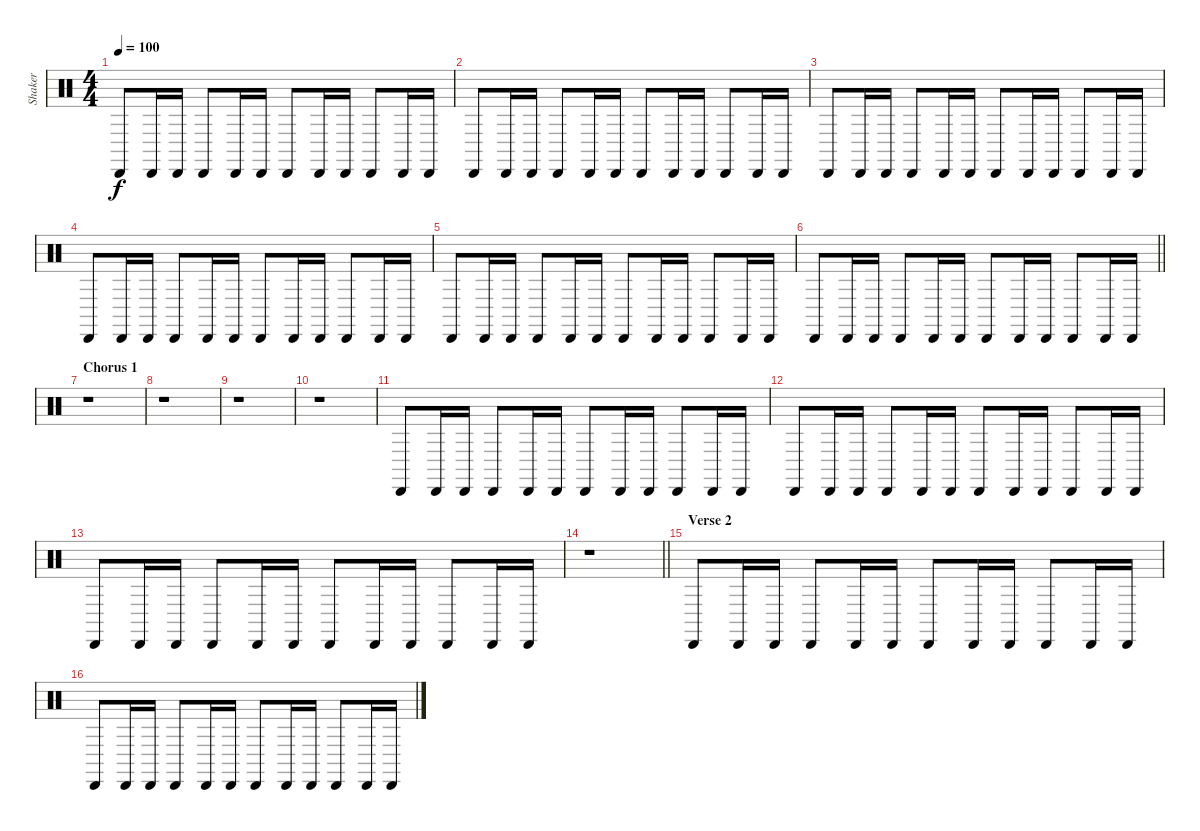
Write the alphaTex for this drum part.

\track ("Shaker" "Shaker") {instrument percussion}
\staff {score}
\articulation defaults
\ts (4 4)
\tempo 100
\clef neutral
\ks c "Cabasa (hit)".8{dy f} "Cabasa (hit)".16 "Cabasa (hit)".16 "Cabasa (hit)".8 "Cabasa (hit)".16 "Cabasa (hit)".16 "Cabasa (hit)".8 "Cabasa (hit)".16 "Cabasa (hit)".16 "Cabasa (hit)".8 "Cabasa (hit)".16 "Cabasa (hit)".16
|
"Cabasa (hit)".8 "Cabasa (hit)".16 "Cabasa (hit)".16 "Cabasa (hit)".8 "Cabasa (hit)".16 "Cabasa (hit)".16 "Cabasa (hit)".8 "Cabasa (hit)".16 "Cabasa (hit)".16 "Cabasa (hit)".8 "Cabasa (hit)".16 "Cabasa (hit)".16 |
"Cabasa (hit)".8 "Cabasa (hit)".16 "Cabasa (hit)".16 "Cabasa (hit)".8 "Cabasa (hit)".16 "Cabasa (hit)".16 "Cabasa (hit)".8 "Cabasa (hit)".16 "Cabasa (hit)".16 "Cabasa (hit)".8 "Cabasa (hit)".16 "Cabasa (hit)".16 |
"Cabasa (hit)".8 "Cabasa (hit)".16 "Cabasa (hit)".16 "Cabasa (hit)".8 "Cabasa (hit)".16 "Cabasa (hit)".16 "Cabasa (hit)".8 "Cabasa (hit)".16 "Cabasa (hit)".16 "Cabasa (hit)".8 "Cabasa (hit)".16 "Cabasa (hit)".16 |
"Cabasa (hit)".8 "Cabasa (hit)".16 "Cabasa (hit)".16 "Cabasa (hit)".8 "Cabasa (hit)".16 "Cabasa (hit)".16 "Cabasa (hit)".8 "Cabasa (hit)".16 "Cabasa (hit)".16 "Cabasa (hit)".8 "Cabasa (hit)".16 "Cabasa (hit)".16 |
\barLineRight lightlight "Cabasa (hit)".8 "Cabasa (hit)".16 "Cabasa (hit)".16 "Cabasa (hit)".8 "Cabasa (hit)".16 "Cabasa (hit)".16 "Cabasa (hit)".8 "Cabasa (hit)".16 "Cabasa (hit)".16 "Cabasa (hit)".8 "Cabasa (hit)".16 "Cabasa (hit)".16
|
\section ("" "Chorus 1")
r.1 |
r.1 |
r.1 |
r.1 |
"Cabasa (hit)".8 "Cabasa (hit)".16 "Cabasa (hit)".16 "Cabasa (hit)".8 "Cabasa (hit)".16 "Cabasa (hit)".16 "Cabasa (hit)".8 "Cabasa (hit)".16 "Cabasa (hit)".16 "Cabasa (hit)".8 "Cabasa (hit)".16 "Cabasa (hit)".16 |
"Cabasa (hit)".8 "Cabasa (hit)".16 "Cabasa (hit)".16 "Cabasa (hit)".8 "Cabasa (hit)".16 "Cabasa (hit)".16 "Cabasa (hit)".8 "Cabasa (hit)".16 "Cabasa (hit)".16 "Cabasa (hit)".8 "Cabasa (hit)".16 "Cabasa (hit)".16 |
"Cabasa (hit)".8 "Cabasa (hit)".16 "Cabasa (hit)".16 "Cabasa (hit)".8 "Cabasa (hit)".16 "Cabasa (hit)".16 "Cabasa (hit)".8 "Cabasa (hit)".16 "Cabasa (hit)".16 "Cabasa (hit)".8 "Cabasa (hit)".16 "Cabasa (hit)".16 |
\barLineRight lightlight
r.1 |
\section ("" "Verse 2")
"Cabasa (hit)".8 "Cabasa (hit)".16 "Cabasa (hit)".16 "Cabasa (hit)".8 "Cabasa (hit)".16 "Cabasa (hit)".16 "Cabasa (hit)".8 "Cabasa (hit)".16 "Cabasa (hit)".16 "Cabasa (hit)".8 "Cabasa (hit)".16 "Cabasa (hit)".16 |
"Cabasa (hit)".8 "Cabasa (hit)".16 "Cabasa (hit)".16 "Cabasa (hit)".8 "Cabasa (hit)".16 "Cabasa (hit)".16 "Cabasa (hit)".8 "Cabasa (hit)".16 "Cabasa (hit)".16 "Cabasa (hit)".8 "Cabasa (hit)".16 "Cabasa (hit)".16
